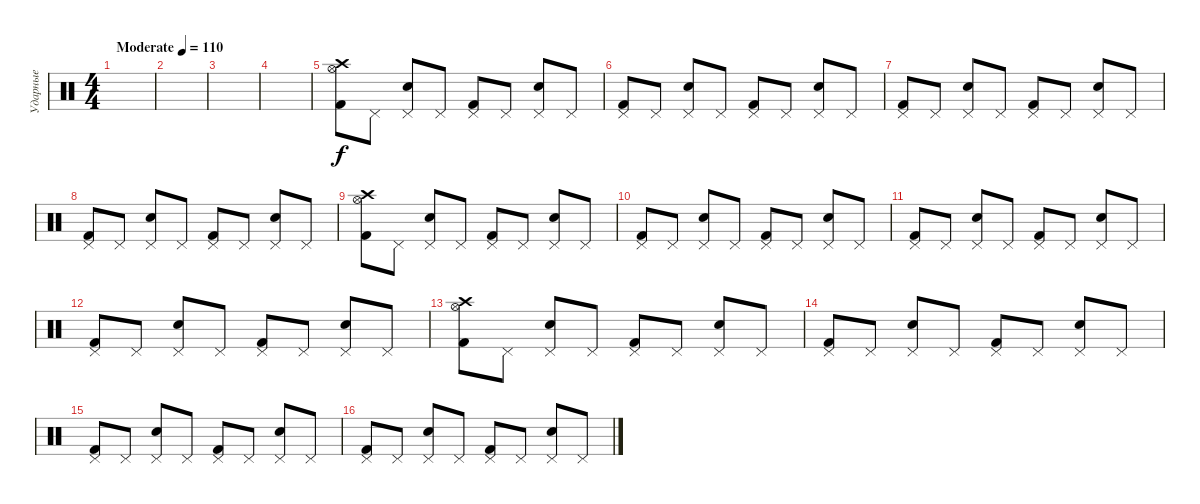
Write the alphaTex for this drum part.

\track ("Ударные" "Ударные") {instrument percussion}
\staff {score}
\articulation defaults
\ts (4 4)
\tempo (110 "Moderate")
\clef neutral
\ks c
|
|
|
|
("Crash high (hit)" "Hi-Hat (open)" "Kick (hit) 2").8 "Pedal Hi-Hat (hit)".8 ("Pedal Hi-Hat (hit)" "Electric Snare (hit)").8 "Pedal Hi-Hat (hit)".8 ("Pedal Hi-Hat (hit)" "Kick (hit) 2").8 "Pedal Hi-Hat (hit)".8 ("Pedal Hi-Hat (hit)" "Electric Snare (hit)").8 "Pedal Hi-Hat (hit)".8 |
("Pedal Hi-Hat (hit)" "Kick (hit) 2").8 "Pedal Hi-Hat (hit)".8 ("Pedal Hi-Hat (hit)" "Electric Snare (hit)").8 "Pedal Hi-Hat (hit)".8 ("Pedal Hi-Hat (hit)" "Kick (hit) 2").8 "Pedal Hi-Hat (hit)".8 ("Pedal Hi-Hat (hit)" "Electric Snare (hit)").8 "Pedal Hi-Hat (hit)".8 |
("Pedal Hi-Hat (hit)" "Kick (hit) 2").8 "Pedal Hi-Hat (hit)".8 ("Pedal Hi-Hat (hit)" "Electric Snare (hit)").8 "Pedal Hi-Hat (hit)".8 ("Pedal Hi-Hat (hit)" "Kick (hit) 2").8 "Pedal Hi-Hat (hit)".8 ("Pedal Hi-Hat (hit)" "Electric Snare (hit)").8 "Pedal Hi-Hat (hit)".8 |
("Pedal Hi-Hat (hit)" "Kick (hit) 2").8 "Pedal Hi-Hat (hit)".8 ("Pedal Hi-Hat (hit)" "Electric Snare (hit)").8 "Pedal Hi-Hat (hit)".8 ("Pedal Hi-Hat (hit)" "Kick (hit) 2").8 "Pedal Hi-Hat (hit)".8 ("Pedal Hi-Hat (hit)" "Electric Snare (hit)").8 "Pedal Hi-Hat (hit)".8 |
("Crash high (hit)" "Hi-Hat (open)" "Kick (hit) 2").8 "Pedal Hi-Hat (hit)".8 ("Pedal Hi-Hat (hit)" "Electric Snare (hit)").8 "Pedal Hi-Hat (hit)".8 ("Pedal Hi-Hat (hit)" "Kick (hit) 2").8 "Pedal Hi-Hat (hit)".8 ("Pedal Hi-Hat (hit)" "Electric Snare (hit)").8 "Pedal Hi-Hat (hit)".8 |
("Pedal Hi-Hat (hit)" "Kick (hit) 2").8 "Pedal Hi-Hat (hit)".8 ("Pedal Hi-Hat (hit)" "Electric Snare (hit)").8 "Pedal Hi-Hat (hit)".8 ("Pedal Hi-Hat (hit)" "Kick (hit) 2").8 "Pedal Hi-Hat (hit)".8 ("Pedal Hi-Hat (hit)" "Electric Snare (hit)").8 "Pedal Hi-Hat (hit)".8 |
("Pedal Hi-Hat (hit)" "Kick (hit) 2").8 "Pedal Hi-Hat (hit)".8 ("Pedal Hi-Hat (hit)" "Electric Snare (hit)").8 "Pedal Hi-Hat (hit)".8 ("Pedal Hi-Hat (hit)" "Kick (hit) 2").8 "Pedal Hi-Hat (hit)".8 ("Pedal Hi-Hat (hit)" "Electric Snare (hit)").8 "Pedal Hi-Hat (hit)".8 |
("Pedal Hi-Hat (hit)" "Kick (hit) 2").8 "Pedal Hi-Hat (hit)".8 ("Pedal Hi-Hat (hit)" "Electric Snare (hit)").8 "Pedal Hi-Hat (hit)".8 ("Pedal Hi-Hat (hit)" "Kick (hit) 2").8 "Pedal Hi-Hat (hit)".8 ("Pedal Hi-Hat (hit)" "Electric Snare (hit)").8 "Pedal Hi-Hat (hit)".8 |
("Crash high (hit)" "Hi-Hat (open)" "Kick (hit) 2").8 "Pedal Hi-Hat (hit)".8 ("Pedal Hi-Hat (hit)" "Electric Snare (hit)").8 "Pedal Hi-Hat (hit)".8 ("Pedal Hi-Hat (hit)" "Kick (hit) 2").8 "Pedal Hi-Hat (hit)".8 ("Pedal Hi-Hat (hit)" "Electric Snare (hit)").8 "Pedal Hi-Hat (hit)".8 |
("Pedal Hi-Hat (hit)" "Kick (hit) 2").8 "Pedal Hi-Hat (hit)".8 ("Pedal Hi-Hat (hit)" "Electric Snare (hit)").8 "Pedal Hi-Hat (hit)".8 ("Pedal Hi-Hat (hit)" "Kick (hit) 2").8 "Pedal Hi-Hat (hit)".8 ("Pedal Hi-Hat (hit)" "Electric Snare (hit)").8 "Pedal Hi-Hat (hit)".8 |
("Pedal Hi-Hat (hit)" "Kick (hit) 2").8 "Pedal Hi-Hat (hit)".8 ("Pedal Hi-Hat (hit)" "Electric Snare (hit)").8 "Pedal Hi-Hat (hit)".8 ("Pedal Hi-Hat (hit)" "Kick (hit) 2").8 "Pedal Hi-Hat (hit)".8 ("Pedal Hi-Hat (hit)" "Electric Snare (hit)").8 "Pedal Hi-Hat (hit)".8 |
("Pedal Hi-Hat (hit)" "Kick (hit) 2").8 "Pedal Hi-Hat (hit)".8 ("Pedal Hi-Hat (hit)" "Electric Snare (hit)").8 "Pedal Hi-Hat (hit)".8 ("Pedal Hi-Hat (hit)" "Kick (hit) 2").8 "Pedal Hi-Hat (hit)".8 ("Pedal Hi-Hat (hit)" "Electric Snare (hit)").8 "Pedal Hi-Hat (hit)".8
